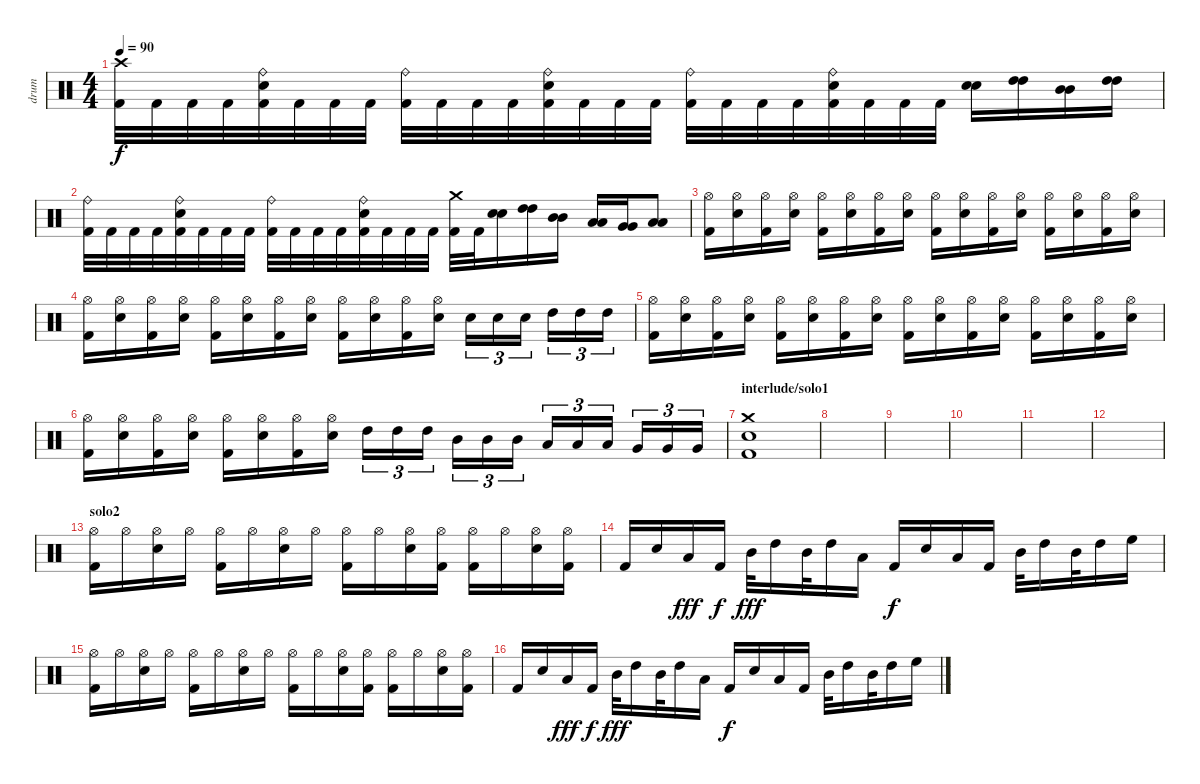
\track ("drum" "drum") {instrument percussion}
\staff {score}
\articulation defaults
\ts (4 4)
\tempo 90
\clef neutral
\ks c
("Crash high (hit)" "Kick (hit) 2").32{dy f} "Kick (hit) 2".32 "Kick (hit) 2".32 "Kick (hit) 2".32 ("Ride (bell)" "Electric Snare (hit)" "Kick (hit) 2").32 "Kick (hit) 2".32 "Kick (hit) 2".32 "Kick (hit) 2".32 ("Ride (bell)" "Kick (hit) 2").32 "Kick (hit) 2".32 "Kick (hit) 2".32 "Kick (hit) 2".32 ("Ride (bell)" "Electric Snare (hit)" "Kick (hit) 2").32 "Kick (hit) 2".32 "Kick (hit) 2".32 "Kick (hit) 2".32 ("Ride (bell)" "Kick (hit) 2").32 "Kick (hit) 2".32 "Kick (hit) 2".32 "Kick (hit) 2".32 ("Ride (bell)" "Electric Snare (hit)" "Kick (hit) 2").32 "Kick (hit) 2".32 "Kick (hit) 2".32 "Kick (hit) 2".32 ("Electric Snare (hit)" "Electric Snare (hit)").16 ("High Tom (hit)" "High Tom (hit)").16 ("Mid Tom (hit)" "Mid Tom (hit)").16 ("High Tom (hit)" "High Tom (hit)").16 |
("Ride (bell)" "Kick (hit) 2").32 "Kick (hit) 2".32 "Kick (hit) 2".32 "Kick (hit) 2".32 ("Ride (bell)" "Electric Snare (hit)" "Kick (hit) 2").32 "Kick (hit) 2".32 "Kick (hit) 2".32 "Kick (hit) 2".32 ("Ride (bell)" "Kick (hit) 2").32 "Kick (hit) 2".32 "Kick (hit) 2".32 "Kick (hit) 2".32 ("Ride (bell)" "Electric Snare (hit)" "Kick (hit) 2").32 "Kick (hit) 2".32 "Kick (hit) 2".32 "Kick (hit) 2".32 ("Crash medium (hit)" "Kick (hit) 2").32 "Kick (hit) 2".32 ("Electric Snare (hit)" "Electric Snare (hit)").16 ("High Tom (hit)" "High Tom (hit)").16 ("Mid Tom (hit)" "Mid Tom (hit)").16 ("Low Tom (hit)" "Low Tom (hit)").16 ("Very Low Tom (hit)" "Very Low Tom (hit)").16 ("Low Floor Tom (hit)" "Low Floor Tom (hit)").8 |
("Hi-Hat (open)" "Kick (hit) 2").16 ("Hi-Hat (open)" "Electric Snare (hit)").16 ("Hi-Hat (open)" "Kick (hit) 2").16 ("Hi-Hat (open)" "Electric Snare (hit)").16 ("Hi-Hat (open)" "Kick (hit) 2").16 ("Hi-Hat (open)" "Electric Snare (hit)").16 ("Hi-Hat (open)" "Kick (hit) 2").16 ("Hi-Hat (open)" "Electric Snare (hit)").16 ("Hi-Hat (open)" "Kick (hit) 2").16 ("Hi-Hat (open)" "Electric Snare (hit)").16 ("Hi-Hat (open)" "Kick (hit) 2").16 ("Hi-Hat (open)" "Electric Snare (hit)").16 ("Hi-Hat (open)" "Kick (hit) 2").16 ("Hi-Hat (open)" "Electric Snare (hit)").16 ("Hi-Hat (open)" "Kick (hit) 2").16 ("Hi-Hat (open)" "Electric Snare (hit)").16 |
("Hi-Hat (open)" "Kick (hit) 2").16 ("Hi-Hat (open)" "Electric Snare (hit)").16 ("Hi-Hat (open)" "Kick (hit) 2").16 ("Hi-Hat (open)" "Electric Snare (hit)").16 ("Hi-Hat (open)" "Kick (hit) 2").16 ("Hi-Hat (open)" "Electric Snare (hit)").16 ("Hi-Hat (open)" "Kick (hit) 2").16 ("Hi-Hat (open)" "Electric Snare (hit)").16 ("Hi-Hat (open)" "Kick (hit) 2").16 ("Hi-Hat (open)" "Electric Snare (hit)").16 ("Hi-Hat (open)" "Kick (hit) 2").16 ("Hi-Hat (open)" "Electric Snare (hit)").16 "Electric Snare (hit)".16{tu (3 2)} "Electric Snare (hit)".16{tu (3 2)} "Electric Snare (hit)".16{tu (3 2)} "High Tom (hit)".16{tu (3 2)} "High Tom (hit)".16{tu (3 2)} "High Tom (hit)".16{tu (3 2)} |
("Hi-Hat (open)" "Kick (hit) 2").16 ("Hi-Hat (open)" "Electric Snare (hit)").16 ("Hi-Hat (open)" "Kick (hit) 2").16 ("Hi-Hat (open)" "Electric Snare (hit)").16 ("Hi-Hat (open)" "Kick (hit) 2").16 ("Hi-Hat (open)" "Electric Snare (hit)").16 ("Hi-Hat (open)" "Kick (hit) 2").16 ("Hi-Hat (open)" "Electric Snare (hit)").16 ("Hi-Hat (open)" "Kick (hit) 2").16 ("Hi-Hat (open)" "Electric Snare (hit)").16 ("Hi-Hat (open)" "Kick (hit) 2").16 ("Hi-Hat (open)" "Electric Snare (hit)").16 ("Hi-Hat (open)" "Kick (hit) 2").16 ("Hi-Hat (open)" "Electric Snare (hit)").16 ("Hi-Hat (open)" "Kick (hit) 2").16 ("Hi-Hat (open)" "Electric Snare (hit)").16 |
("Hi-Hat (open)" "Kick (hit) 2").16 ("Hi-Hat (open)" "Electric Snare (hit)").16 ("Hi-Hat (open)" "Kick (hit) 2").16 ("Hi-Hat (open)" "Electric Snare (hit)").16 ("Hi-Hat (open)" "Kick (hit) 2").16 ("Hi-Hat (open)" "Electric Snare (hit)").16 ("Hi-Hat (open)" "Kick (hit) 2").16 ("Hi-Hat (open)" "Electric Snare (hit)").16 "High Tom (hit)".16{tu (3 2)} "High Tom (hit)".16{tu (3 2)} "High Tom (hit)".16{tu (3 2)} "Mid Tom (hit)".16{tu (3 2)} "Mid Tom (hit)".16{tu (3 2)} "Mid Tom (hit)".16{tu (3 2)} "Low Tom (hit)".16{tu (3 2)} "Low Tom (hit)".16{tu (3 2)} "Low Tom (hit)".16{tu (3 2)} "Very Low Tom (hit)".16{tu (3 2)} "Very Low Tom (hit)".16{tu (3 2)} "Very Low Tom (hit)".16{tu (3 2)} |
\section ("" "interlude/solo1")
("Crash medium (hit)" "Electric Snare (hit)" "Kick (hit) 2").1 |
|
|
|
|
|
\section ("" "solo2")
("Hi-Hat (open)" "Kick (hit) 2").16 "Hi-Hat (open)".16 ("Hi-Hat (open)" "Electric Snare (hit)").16 "Hi-Hat (open)".16 ("Hi-Hat (open)" "Kick (hit) 2").16 "Hi-Hat (open)".16 ("Hi-Hat (open)" "Electric Snare (hit)").16 "Hi-Hat (open)".16 ("Hi-Hat (open)" "Kick (hit) 2").16 "Hi-Hat (open)".16 ("Hi-Hat (open)" "Electric Snare (hit)").16 ("Hi-Hat (open)" "Kick (hit) 2").16 ("Hi-Hat (open)" "Kick (hit) 2").16 "Hi-Hat (open)".16 ("Hi-Hat (open)" "Electric Snare (hit)").16 ("Hi-Hat (open)" "Kick (hit) 2").16 |
"Kick (hit) 2".16 "Electric Snare (hit)".16 "Low Tom (hit)".16{dy fff} "Kick (hit) 2".16{dy f} "Mid Tom (hit)".32{dy fff} "High Tom (hit)".16 "Mid Tom (hit)".32 "High Tom (hit)".16 "Low Tom (hit)".16 "Kick (hit) 2".16{dy f} "Electric Snare (hit)".16 "Low Tom (hit)".16 "Kick (hit) 2".16 "Mid Tom (hit)".32 "High Tom (hit)".16 "Mid Tom (hit)".32 "High Tom (hit)".16 "High Floor Tom (hit)".16 |
("Hi-Hat (open)" "Kick (hit) 2").16 "Hi-Hat (open)".16 ("Hi-Hat (open)" "Electric Snare (hit)").16 "Hi-Hat (open)".16 ("Hi-Hat (open)" "Kick (hit) 2").16 "Hi-Hat (open)".16 ("Hi-Hat (open)" "Electric Snare (hit)").16 "Hi-Hat (open)".16 ("Hi-Hat (open)" "Kick (hit) 2").16 "Hi-Hat (open)".16 ("Hi-Hat (open)" "Electric Snare (hit)").16 ("Hi-Hat (open)" "Kick (hit) 2").16 ("Hi-Hat (open)" "Kick (hit) 2").16 "Hi-Hat (open)".16 ("Hi-Hat (open)" "Electric Snare (hit)").16 ("Hi-Hat (open)" "Kick (hit) 2").16 |
"Kick (hit) 2".16 "Electric Snare (hit)".16 "Low Tom (hit)".16{dy fff} "Kick (hit) 2".16{dy f} "Mid Tom (hit)".32{dy fff} "High Tom (hit)".16 "Mid Tom (hit)".32 "High Tom (hit)".16 "Low Tom (hit)".16 "Kick (hit) 2".16{dy f} "Electric Snare (hit)".16 "Low Tom (hit)".16 "Kick (hit) 2".16 "Mid Tom (hit)".32 "High Tom (hit)".16 "Mid Tom (hit)".32 "High Tom (hit)".16 "High Floor Tom (hit)".16
